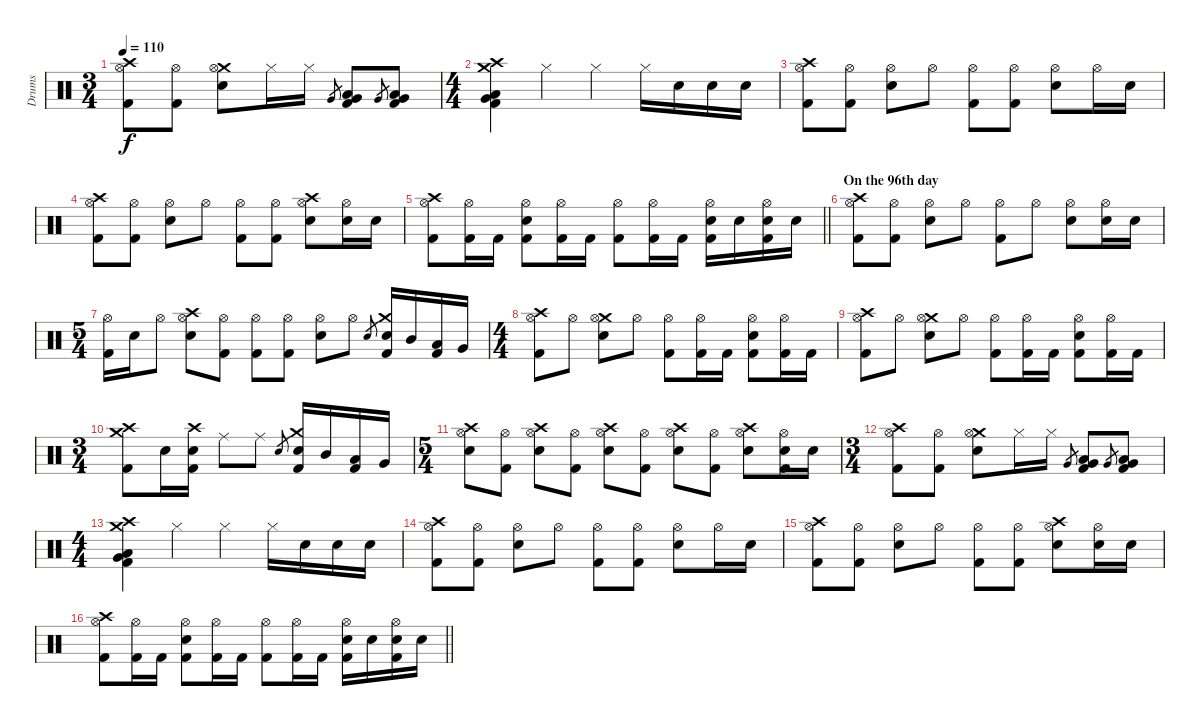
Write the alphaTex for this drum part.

\track ("Drums" "Drums") {instrument percussion}
\staff {score}
\articulation defaults
\ts (3 4)
\tempo 110
\clef neutral
\ks c
("Crash high (hit)" "Hi-Hat (open)" "Kick (hit) 2").8{dy f} ("Hi-Hat (open)" "Kick (hit) 2").8 ("Crash medium (hit)" "Hi-Hat (open)" "Snare (hit) 2").8 "Hi-Hat (closed)".16 "Hi-Hat (closed)".16 "Very Low Tom (hit)".8{gr} ("Low Tom (hit)" "Very Low Tom (hit)" "Kick (hit) 2").8 "Very Low Tom (hit)".8{gr} ("Low Tom (hit)" "Very Low Tom (hit)" "Kick (hit) 2").8 |
\ts (4 4)
("Crash high (hit)" "Crash medium (hit)" "Low Tom (hit)" "Very Low Tom (hit)" "Kick (hit) 2").4 "Hi-Hat (closed)".4 "Hi-Hat (closed)".4 "Hi-Hat (closed)".16 "Snare (hit) 2".16 "Snare (hit) 2".16 "Snare (hit) 2".16 |
("Crash high (hit)" "Hi-Hat (open)" "Kick (hit) 2").8 ("Hi-Hat (open)" "Kick (hit) 2").8 ("Hi-Hat (open)" "Snare (hit) 2").8 "Hi-Hat (open)".8 ("Hi-Hat (open)" "Kick (hit) 2").8 ("Hi-Hat (open)" "Kick (hit) 2").8 ("Hi-Hat (open)" "Snare (hit) 2").8 "Hi-Hat (open)".16 "Snare (hit) 2".16 |
("Crash high (hit)" "Hi-Hat (open)" "Kick (hit) 2").8 ("Hi-Hat (open)" "Kick (hit) 2").8 ("Hi-Hat (open)" "Snare (hit) 2").8 "Hi-Hat (open)".8 ("Hi-Hat (open)" "Kick (hit) 2").8 ("Hi-Hat (open)" "Kick (hit) 2").8 ("Crash high (hit)" "Hi-Hat (open)" "Snare (hit) 2").8 ("Hi-Hat (open)" "Snare (hit) 2").16 "Snare (hit) 2".16 |
\barLineRight lightlight
("Crash high (hit)" "Hi-Hat (open)" "Kick (hit) 2").8 ("Hi-Hat (open)" "Kick (hit) 2").16 "Kick (hit) 2".16 ("Hi-Hat (open)" "Snare (hit) 2" "Kick (hit) 2").8 ("Hi-Hat (open)" "Kick (hit) 2").16 "Kick (hit) 2".16 ("Hi-Hat (open)" "Kick (hit) 2").8 ("Hi-Hat (open)" "Kick (hit) 2").16 "Kick (hit) 2".16 ("Hi-Hat (open)" "Snare (hit) 2" "Kick (hit) 2").16 "Snare (hit) 2".16 ("Hi-Hat (open)" "Snare (hit) 2" "Kick (hit) 2").16 "Snare (hit) 2".16 |
\section ("" "On the 96th day")
("Crash high (hit)" "Hi-Hat (open)" "Kick (hit) 2").8 ("Hi-Hat (open)" "Kick (hit) 2").8 ("Hi-Hat (open)" "Snare (hit) 2").8 "Hi-Hat (open)".8 ("Hi-Hat (open)" "Kick (hit) 2").8 "Hi-Hat (open)".8 ("Hi-Hat (open)" "Snare (hit) 2").8 ("Hi-Hat (open)" "Snare (hit) 2").16 "Snare (hit) 2".16 |
\ts (5 4)
("Hi-Hat (open)" "Kick (hit) 2").16 "Snare (hit) 2".16 "Hi-Hat (open)".8 ("Crash high (hit)" "Hi-Hat (open)" "Snare (hit) 2").8 ("Hi-Hat (open)" "Kick (hit) 2").8 ("Hi-Hat (open)" "Kick (hit) 2").8 ("Hi-Hat (open)" "Kick (hit) 2").8 ("Hi-Hat (open)" "Snare (hit) 2").8 "Hi-Hat (open)".8 "Snare (hit) 2".8{gr} ("Crash medium (hit)" "Snare (hit) 2" "Kick (hit) 2").16 "Mid Tom (hit)".16 ("Low Tom (hit)" "Kick (hit) 2").16 "Very Low Tom (hit)".16 |
\ts (4 4)
("Crash high (hit)" "Hi-Hat (open)" "Kick (hit) 2").8 "Hi-Hat (open)".8 ("Crash medium (hit)" "Hi-Hat (open)" "Snare (hit) 2").8 "Hi-Hat (open)".8 ("Hi-Hat (open)" "Kick (hit) 2").8 ("Hi-Hat (open)" "Kick (hit) 2").16 "Kick (hit) 2".16 ("Hi-Hat (open)" "Snare (hit) 2" "Kick (hit) 2").8 ("Hi-Hat (open)" "Kick (hit) 2").16 "Kick (hit) 2".16 |
("Crash high (hit)" "Hi-Hat (open)" "Kick (hit) 2").8 "Hi-Hat (open)".8 ("Crash medium (hit)" "Hi-Hat (open)" "Snare (hit) 2").8 "Hi-Hat (open)".8 ("Hi-Hat (open)" "Kick (hit) 2").8 ("Hi-Hat (open)" "Kick (hit) 2").16 "Kick (hit) 2".16 ("Hi-Hat (open)" "Snare (hit) 2" "Kick (hit) 2").8 ("Hi-Hat (open)" "Kick (hit) 2").16 "Kick (hit) 2".16 |
\ts (3 4)
("Crash medium (hit)" "Crash high (hit)" "Kick (hit) 2").8 "Snare (hit) 2".16 ("Crash high (hit)" "Snare (hit) 2" "Kick (hit) 2").16 "Ride (middle)".8 "Ride (middle)".8 "Snare (hit) 2".8{gr} ("Crash medium (hit)" "Snare (hit) 2" "Kick (hit) 2").16 "Mid Tom (hit)".16 ("Low Tom (hit)" "Kick (hit) 2").16 "Very Low Tom (hit)".16 |
\ts (5 4)
("Crash high (hit)" "Hi-Hat (open)" "Snare (hit) 2").8 ("Hi-Hat (open)" "Kick (hit) 2").8 ("Crash high (hit)" "Hi-Hat (open)" "Snare (hit) 2").8 ("Hi-Hat (open)" "Kick (hit) 2").8 ("Crash high (hit)" "Hi-Hat (open)" "Snare (hit) 2").8 ("Hi-Hat (open)" "Kick (hit) 2").8 ("Crash high (hit)" "Hi-Hat (open)" "Snare (hit) 2").8 ("Hi-Hat (open)" "Kick (hit) 2").8 ("Crash high (hit)" "Hi-Hat (open)" "Snare (hit) 2").8 ("Hi-Hat (open)" "Snare (hit) 2" "Kick (hit) 2").16 "Snare (hit) 2".16 |
\ts (3 4)
("Crash high (hit)" "Hi-Hat (open)" "Kick (hit) 2").8 ("Hi-Hat (open)" "Kick (hit) 2").8 ("Crash medium (hit)" "Hi-Hat (open)" "Snare (hit) 2").8 "Hi-Hat (closed)".16 "Hi-Hat (closed)".16 "Very Low Tom (hit)".8{gr} ("Low Tom (hit)" "Very Low Tom (hit)" "Kick (hit) 2").8 "Very Low Tom (hit)".8{gr} ("Low Tom (hit)" "Very Low Tom (hit)" "Kick (hit) 2").8 |
\ts (4 4)
("Crash high (hit)" "Crash medium (hit)" "Low Tom (hit)" "Very Low Tom (hit)" "Kick (hit) 2").4 "Hi-Hat (closed)".4 "Hi-Hat (closed)".4 "Hi-Hat (closed)".16 "Snare (hit) 2".16 "Snare (hit) 2".16 "Snare (hit) 2".16 |
("Crash high (hit)" "Hi-Hat (open)" "Kick (hit) 2").8 ("Hi-Hat (open)" "Kick (hit) 2").8 ("Hi-Hat (open)" "Snare (hit) 2").8 "Hi-Hat (open)".8 ("Hi-Hat (open)" "Kick (hit) 2").8 ("Hi-Hat (open)" "Kick (hit) 2").8 ("Hi-Hat (open)" "Snare (hit) 2").8 "Hi-Hat (open)".16 "Snare (hit) 2".16 |
("Crash high (hit)" "Hi-Hat (open)" "Kick (hit) 2").8 ("Hi-Hat (open)" "Kick (hit) 2").8 ("Hi-Hat (open)" "Snare (hit) 2").8 "Hi-Hat (open)".8 ("Hi-Hat (open)" "Kick (hit) 2").8 ("Hi-Hat (open)" "Kick (hit) 2").8 ("Crash high (hit)" "Hi-Hat (open)" "Snare (hit) 2").8 ("Hi-Hat (open)" "Snare (hit) 2").16 "Snare (hit) 2".16 |
\barLineRight lightlight
("Crash high (hit)" "Hi-Hat (open)" "Kick (hit) 2").8 ("Hi-Hat (open)" "Kick (hit) 2").16 "Kick (hit) 2".16 ("Hi-Hat (open)" "Snare (hit) 2" "Kick (hit) 2").8 ("Hi-Hat (open)" "Kick (hit) 2").16 "Kick (hit) 2".16 ("Hi-Hat (open)" "Kick (hit) 2").8 ("Hi-Hat (open)" "Kick (hit) 2").16 "Kick (hit) 2".16 ("Hi-Hat (open)" "Snare (hit) 2" "Kick (hit) 2").16 "Snare (hit) 2".16 ("Hi-Hat (open)" "Snare (hit) 2" "Kick (hit) 2").16 "Snare (hit) 2".16
